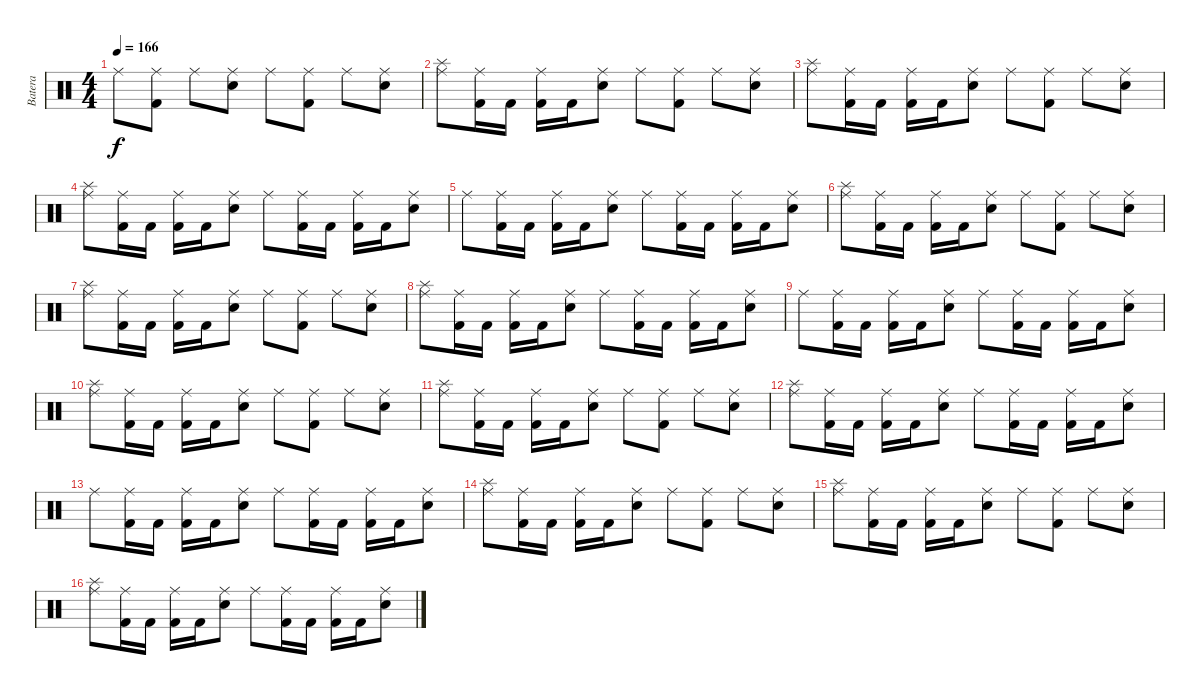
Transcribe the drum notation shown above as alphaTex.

\track ("Batera" "Batera") {instrument percussion}
\staff {score}
\articulation defaults
\ts (4 4)
\tempo 166
\clef neutral
\ks c "Ride (middle)".8{dy f}
("Ride (middle)" "Kick (hit) 2").8 "Ride (middle)".8 ("Ride (middle)" "Snare (hit) 2").8 "Ride (middle)".8 ("Ride (middle)" "Kick (hit) 2").8 "Ride (middle)".8 ("Ride (middle)" "Snare (hit) 2").8 |
("Ride (middle)" "Splash (hit)").8 ("Ride (middle)" "Kick (hit) 2").16 "Kick (hit) 2".16 ("Ride (middle)" "Kick (hit) 2").16 "Kick (hit) 2".16 ("Ride (middle)" "Snare (hit) 2").8 "Ride (middle)".8 ("Ride (middle)" "Kick (hit) 2").8 "Ride (middle)".8 ("Ride (middle)" "Snare (hit) 2").8 |
("Ride (middle)" "Splash (hit)").8 ("Ride (middle)" "Kick (hit) 2").16 "Kick (hit) 2".16 ("Ride (middle)" "Kick (hit) 2").16 "Kick (hit) 2".16 ("Ride (middle)" "Snare (hit) 2").8 "Ride (middle)".8 ("Ride (middle)" "Kick (hit) 2").8 "Ride (middle)".8 ("Ride (middle)" "Snare (hit) 2").8 |
("Ride (middle)" "Splash (hit)").8 ("Ride (middle)" "Kick (hit) 2").16 "Kick (hit) 2".16 ("Ride (middle)" "Kick (hit) 2").16 "Kick (hit) 2".16 ("Ride (middle)" "Snare (hit) 2").8 "Ride (middle)".8 ("Ride (middle)" "Kick (hit) 2").16 "Kick (hit) 2".16 ("Ride (middle)" "Kick (hit) 2").16 "Kick (hit) 2".16 ("Ride (middle)" "Snare (hit) 2").8 |
"Ride (middle)".8 ("Ride (middle)" "Kick (hit) 2").16 "Kick (hit) 2".16 ("Ride (middle)" "Kick (hit) 2").16 "Kick (hit) 2".16 ("Ride (middle)" "Snare (hit) 2").8 "Ride (middle)".8 ("Ride (middle)" "Kick (hit) 2").16 "Kick (hit) 2".16 ("Ride (middle)" "Kick (hit) 2").16 "Kick (hit) 2".16 ("Ride (middle)" "Snare (hit) 2").8 |
("Ride (middle)" "Splash (hit)").8 ("Ride (middle)" "Kick (hit) 2").16 "Kick (hit) 2".16 ("Ride (middle)" "Kick (hit) 2").16 "Kick (hit) 2".16 ("Ride (middle)" "Snare (hit) 2").8 "Ride (middle)".8 ("Ride (middle)" "Kick (hit) 2").8 "Ride (middle)".8 ("Ride (middle)" "Snare (hit) 2").8 |
("Ride (middle)" "Splash (hit)").8 ("Ride (middle)" "Kick (hit) 2").16 "Kick (hit) 2".16 ("Ride (middle)" "Kick (hit) 2").16 "Kick (hit) 2".16 ("Ride (middle)" "Snare (hit) 2").8 "Ride (middle)".8 ("Ride (middle)" "Kick (hit) 2").8 "Ride (middle)".8 ("Ride (middle)" "Snare (hit) 2").8 |
("Ride (middle)" "Splash (hit)").8 ("Ride (middle)" "Kick (hit) 2").16 "Kick (hit) 2".16 ("Ride (middle)" "Kick (hit) 2").16 "Kick (hit) 2".16 ("Ride (middle)" "Snare (hit) 2").8 "Ride (middle)".8 ("Ride (middle)" "Kick (hit) 2").16 "Kick (hit) 2".16 ("Ride (middle)" "Kick (hit) 2").16 "Kick (hit) 2".16 ("Ride (middle)" "Snare (hit) 2").8 |
"Ride (middle)".8 ("Ride (middle)" "Kick (hit) 2").16 "Kick (hit) 2".16 ("Ride (middle)" "Kick (hit) 2").16 "Kick (hit) 2".16 ("Ride (middle)" "Snare (hit) 2").8 "Ride (middle)".8 ("Ride (middle)" "Kick (hit) 2").16 "Kick (hit) 2".16 ("Ride (middle)" "Kick (hit) 2").16 "Kick (hit) 2".16 ("Ride (middle)" "Snare (hit) 2").8 |
("Ride (middle)" "Splash (hit)").8 ("Ride (middle)" "Kick (hit) 2").16 "Kick (hit) 2".16 ("Ride (middle)" "Kick (hit) 2").16 "Kick (hit) 2".16 ("Ride (middle)" "Snare (hit) 2").8 "Ride (middle)".8 ("Ride (middle)" "Kick (hit) 2").8 "Ride (middle)".8 ("Ride (middle)" "Snare (hit) 2").8 |
("Ride (middle)" "Splash (hit)").8 ("Ride (middle)" "Kick (hit) 2").16 "Kick (hit) 2".16 ("Ride (middle)" "Kick (hit) 2").16 "Kick (hit) 2".16 ("Ride (middle)" "Snare (hit) 2").8 "Ride (middle)".8 ("Ride (middle)" "Kick (hit) 2").8 "Ride (middle)".8 ("Ride (middle)" "Snare (hit) 2").8 |
("Ride (middle)" "Splash (hit)").8 ("Ride (middle)" "Kick (hit) 2").16 "Kick (hit) 2".16 ("Ride (middle)" "Kick (hit) 2").16 "Kick (hit) 2".16 ("Ride (middle)" "Snare (hit) 2").8 "Ride (middle)".8 ("Ride (middle)" "Kick (hit) 2").16 "Kick (hit) 2".16 ("Ride (middle)" "Kick (hit) 2").16 "Kick (hit) 2".16 ("Ride (middle)" "Snare (hit) 2").8 |
"Ride (middle)".8 ("Ride (middle)" "Kick (hit) 2").16 "Kick (hit) 2".16 ("Ride (middle)" "Kick (hit) 2").16 "Kick (hit) 2".16 ("Ride (middle)" "Snare (hit) 2").8 "Ride (middle)".8 ("Ride (middle)" "Kick (hit) 2").16 "Kick (hit) 2".16 ("Ride (middle)" "Kick (hit) 2").16 "Kick (hit) 2".16 ("Ride (middle)" "Snare (hit) 2").8 |
("Ride (middle)" "Splash (hit)").8 ("Ride (middle)" "Kick (hit) 2").16 "Kick (hit) 2".16 ("Ride (middle)" "Kick (hit) 2").16 "Kick (hit) 2".16 ("Ride (middle)" "Snare (hit) 2").8 "Ride (middle)".8 ("Ride (middle)" "Kick (hit) 2").8 "Ride (middle)".8 ("Ride (middle)" "Snare (hit) 2").8 |
("Ride (middle)" "Splash (hit)").8 ("Ride (middle)" "Kick (hit) 2").16 "Kick (hit) 2".16 ("Ride (middle)" "Kick (hit) 2").16 "Kick (hit) 2".16 ("Ride (middle)" "Snare (hit) 2").8 "Ride (middle)".8 ("Ride (middle)" "Kick (hit) 2").8 "Ride (middle)".8 ("Ride (middle)" "Snare (hit) 2").8 |
("Ride (middle)" "Splash (hit)").8 ("Ride (middle)" "Kick (hit) 2").16 "Kick (hit) 2".16 ("Ride (middle)" "Kick (hit) 2").16 "Kick (hit) 2".16 ("Ride (middle)" "Snare (hit) 2").8 "Ride (middle)".8 ("Ride (middle)" "Kick (hit) 2").16 "Kick (hit) 2".16 ("Ride (middle)" "Kick (hit) 2").16 "Kick (hit) 2".16 ("Ride (middle)" "Snare (hit) 2").8
